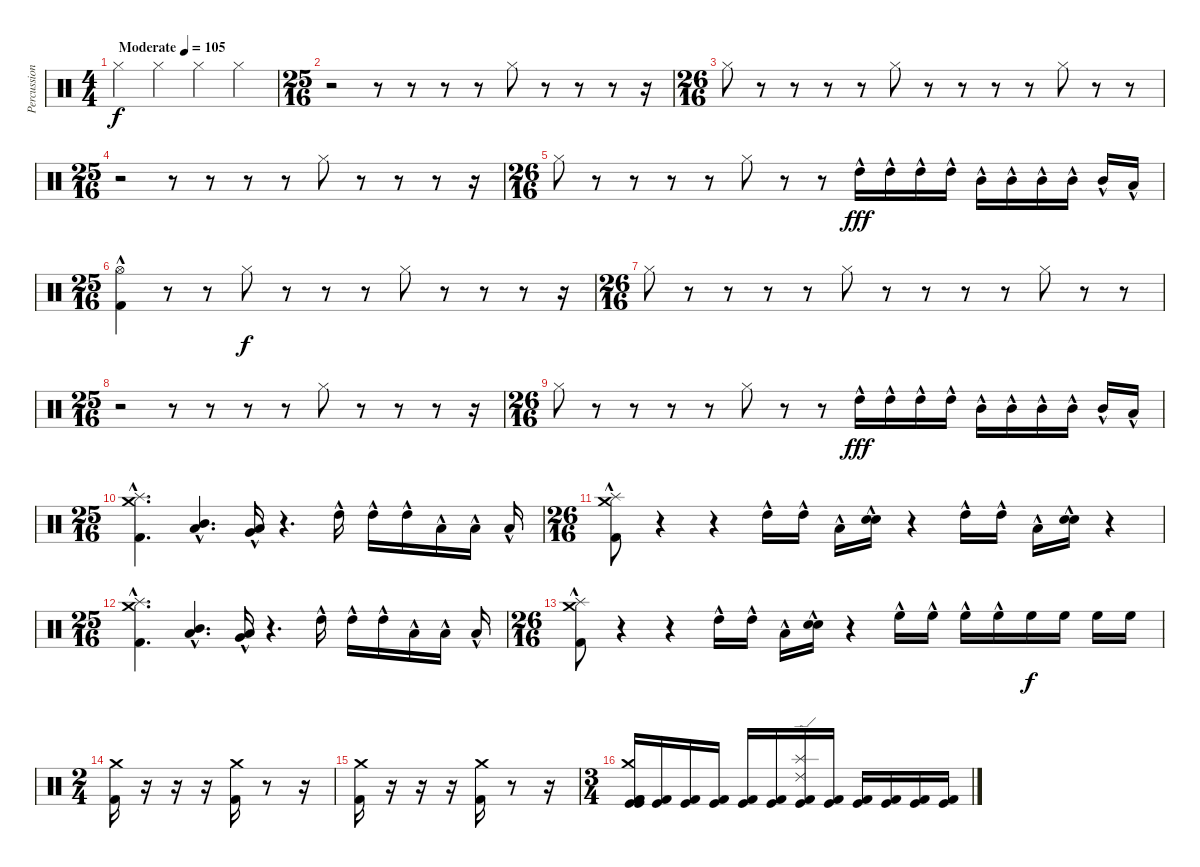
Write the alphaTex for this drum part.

\track ("Percussion" "Percussion") {instrument percussion}
\staff {score}
\articulation defaults
\ts (4 4)
\tempo (105 "Moderate")
\clef neutral
\ks c "Hi-Hat (closed)".4{dy f} "Hi-Hat (closed)".4 "Hi-Hat (closed)".4 "Hi-Hat (closed)".4
|
\ts (25 16)
r.2 r.8 r.8 r.8 r.8 "Hi-Hat (closed)".8 r.8 r.8 r.8 r.16 |
\ts (26 16)
"Hi-Hat (closed)".8 r.8 r.8 r.8 r.8 "Hi-Hat (closed)".8 r.8 r.8 r.8 r.8 "Hi-Hat (closed)".8 r.8 r.8 |
\ts (25 16)
r.2 r.8 r.8 r.8 r.8 "Hi-Hat (closed)".8 r.8 r.8 r.8 r.16 |
\ts (26 16)
"Hi-Hat (closed)".8 r.8 r.8 r.8 r.8 "Hi-Hat (closed)".8 r.8 r.8 "High Tom (hit)"{hac}.16{dy fff} "High Tom (hit)"{hac}.16 "High Tom (hit)"{hac}.16 "High Tom (hit)"{hac}.16 "Mid Tom (hit)"{hac}.16 "Mid Tom (hit)"{hac}.16 "Mid Tom (hit)"{hac}.16 "Mid Tom (hit)"{hac}.16 "Mid Tom (hit)"{hac}.16 "Low Tom (hit)"{hac}.16 |
\ts (25 16)
("Hi-Hat (open)"{hac} "Kick (hit) 2").4{volume 7} r.8 r.8 "Hi-Hat (closed)".8{dy f} r.8 r.8 r.8 "Hi-Hat (closed)".8 r.8 r.8 r.8 r.16 |
\ts (26 16)
"Hi-Hat (closed)".8 r.8 r.8 r.8 r.8 "Hi-Hat (closed)".8 r.8 r.8 r.8 r.8 "Hi-Hat (closed)".8 r.8 r.8 |
\ts (25 16)
r.2 r.8 r.8 r.8 r.8 "Hi-Hat (closed)".8 r.8 r.8 r.8 r.16 |
\ts (26 16)
"Hi-Hat (closed)".8 r.8 r.8 r.8 r.8 "Hi-Hat (closed)".8 r.8 r.8 "High Tom (hit)"{hac}.16{dy fff} "High Tom (hit)"{hac}.16 "High Tom (hit)"{hac}.16 "High Tom (hit)"{hac}.16 "Mid Tom (hit)"{hac}.16 "Mid Tom (hit)"{hac}.16 "Mid Tom (hit)"{hac}.16 "Mid Tom (hit)"{hac}.16 "Mid Tom (hit)"{hac}.16 "Low Tom (hit)"{hac}.16 |
\ts (25 16)
("Splash (hit)" "Crash medium (hit)"{hac} "Kick (hit) 2"{hac}).4{d} ("Low Tom (hit)"{hac} "Mid Tom (hit)"{hac}).4{d} ("Very Low Tom (hit)"{hac} "Low Tom (hit)"{hac}).16 r.4{d} "High Tom (hit)"{hac}.16 "High Tom (hit)"{hac}.16 "High Tom (hit)"{hac}.16 "Low Tom (hit)"{hac}.16 "Low Tom (hit)"{hac}.16 "Low Tom (hit)"{hac}.16 |
\ts (26 16)
("Crash medium (hit)"{hac} "Kick (hit) 2"{hac} "Splash (hit)"{hac}).8 r.4 r.4 "High Tom (hit)"{hac}.16 "High Tom (hit)"{hac}.16 "Low Tom (hit)"{hac}.16 ("Snare (hit) 2"{hac} "Electric Snare (hit)").16 r.4 "High Tom (hit)"{hac}.16 "High Tom (hit)"{hac}.16 "Low Tom (hit)"{hac}.16 ("Snare (hit) 2"{hac} "Electric Snare (hit)").16 r.4 |
\ts (25 16)
("Splash (hit)" "Crash medium (hit)"{hac} "Kick (hit) 2"{hac}).4{d} ("Low Tom (hit)"{hac} "Mid Tom (hit)"{hac}).4{d} ("Very Low Tom (hit)"{hac} "Low Tom (hit)"{hac}).16 r.4{d} "High Tom (hit)"{hac}.16 "High Tom (hit)"{hac}.16 "High Tom (hit)"{hac}.16 "Low Tom (hit)"{hac}.16 "Low Tom (hit)"{hac}.16 "Low Tom (hit)"{hac}.16 |
\ts (26 16)
("Crash medium (hit)" "Kick (hit) 2"{hac} "Splash (hit)").8 r.4 r.4 "High Tom (hit)"{hac}.16 "High Tom (hit)"{hac}.16 "Low Tom (hit)"{hac}.16 ("Snare (hit) 2"{hac} "Electric Snare (hit)").16 r.4 "High Floor Tom (hit)"{hac}.16 "High Floor Tom (hit)"{hac}.16 "High Floor Tom (hit)"{hac}.16 "High Floor Tom (hit)"{hac}.16 "High Floor Tom (hit)".16{dy f} "High Floor Tom (hit)".16 "High Floor Tom (hit)".16 "High Floor Tom (hit)".16 |
\ts (2 4)
("Crash medium (hit)" "Kick (hit) 2").16 r.16 r.16 r.16 ("Crash medium (hit)" "Kick (hit) 2").16 r.8 r.16 |
("Crash medium (hit)" "Kick (hit) 2").16 r.16 r.16 r.16 ("Crash medium (hit)" "Kick (hit) 2").16 r.8 r.16 |
\ts (3 4)
("Kick (hit)" "Crash medium (hit)" "Kick (hit)" "Kick (hit) 2" "Kick (hit) 2").16 ("Kick (hit)" "Kick (hit) 2").16 ("Kick (hit)" "Kick (hit) 2").16 ("Kick (hit)" "Kick (hit) 2").16 ("Kick (hit)" "Kick (hit) 2").16 ("Kick (hit)" "Kick (hit) 2").16 ("Kick (hit)" "Splash (hit)" "Ride (edge) 2" "Kick (hit) 2").16 ("Kick (hit)" "Kick (hit) 2").16 ("Kick (hit)" "Kick (hit) 2").16 ("Kick (hit)" "Kick (hit) 2").16 ("Kick (hit)" "Kick (hit) 2").16 ("Kick (hit)" "Kick (hit) 2").16
